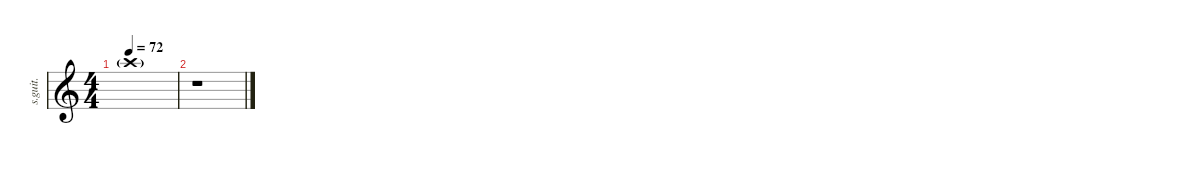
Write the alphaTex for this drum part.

\defaultSystemsLayout 4
\hideDynamics
\bracketExtendMode nobrackets
\track ("Ian Thomas" "s.guit.") {instrument percussion}
\staff {score}
\articulation defaults
\ts (4 4)
\tempo 72
\clef g2
\ks c "Crash high (hit)"{g}.1{lyrics (0 "") lyrics (1 "") lyrics (2 "") lyrics (3 "") lyrics (4 "") dy f}
|
r.1
